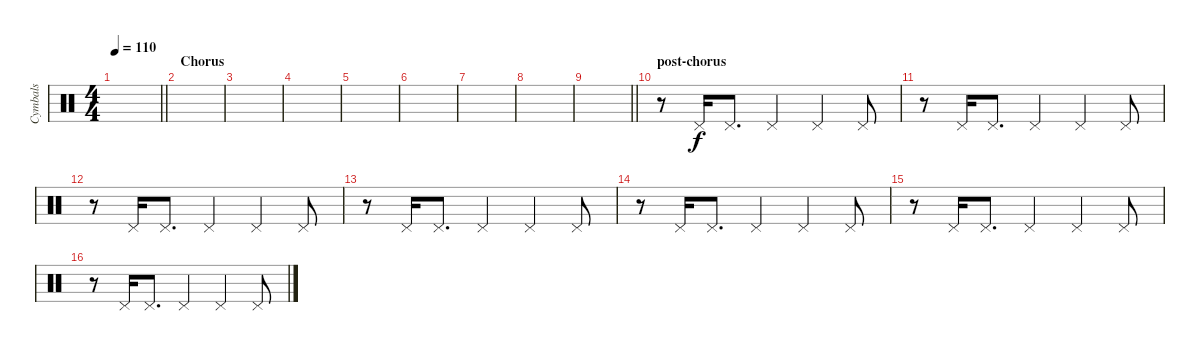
\track ("Cymbals" "Cymbals") {instrument percussion}
\staff {score}
\articulation defaults
\ts (4 4)
\tempo 110
\clef neutral
\barLineRight lightlight
\ks c
|
\section ("" "Chorus")
|
|
|
|
|
|
|
\barLineRight lightlight
|
\section ("" "post-chorus")
r.8 "Pedal Hi-Hat (hit)".16 "Pedal Hi-Hat (hit)".8{d} "Pedal Hi-Hat (hit)".4 "Pedal Hi-Hat (hit)".4 "Pedal Hi-Hat (hit)".8 |
r.8 "Pedal Hi-Hat (hit)".16 "Pedal Hi-Hat (hit)".8{d} "Pedal Hi-Hat (hit)".4 "Pedal Hi-Hat (hit)".4 "Pedal Hi-Hat (hit)".8 |
r.8 "Pedal Hi-Hat (hit)".16 "Pedal Hi-Hat (hit)".8{d} "Pedal Hi-Hat (hit)".4 "Pedal Hi-Hat (hit)".4 "Pedal Hi-Hat (hit)".8 |
r.8 "Pedal Hi-Hat (hit)".16 "Pedal Hi-Hat (hit)".8{d} "Pedal Hi-Hat (hit)".4 "Pedal Hi-Hat (hit)".4 "Pedal Hi-Hat (hit)".8 |
r.8 "Pedal Hi-Hat (hit)".16 "Pedal Hi-Hat (hit)".8{d} "Pedal Hi-Hat (hit)".4 "Pedal Hi-Hat (hit)".4 "Pedal Hi-Hat (hit)".8 |
r.8 "Pedal Hi-Hat (hit)".16 "Pedal Hi-Hat (hit)".8{d} "Pedal Hi-Hat (hit)".4 "Pedal Hi-Hat (hit)".4 "Pedal Hi-Hat (hit)".8 |
r.8 "Pedal Hi-Hat (hit)".16 "Pedal Hi-Hat (hit)".8{d} "Pedal Hi-Hat (hit)".4 "Pedal Hi-Hat (hit)".4 "Pedal Hi-Hat (hit)".8
